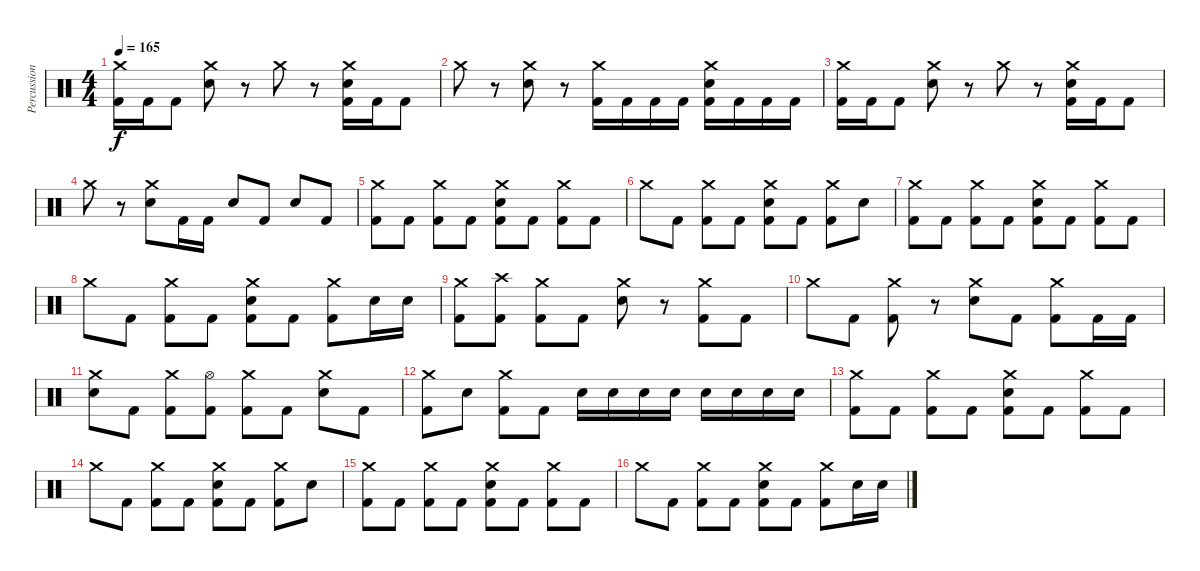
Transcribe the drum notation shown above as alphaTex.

\track ("Percussion" "Percussion") {instrument percussion}
\staff {score}
\articulation defaults
\ts (4 4)
\tempo 165
\clef neutral
\ks c
("Crash medium (hit)" "Kick (hit) 2").16{dy f} "Kick (hit) 2".16 "Kick (hit) 2".8 ("Crash medium (hit)" "Snare (hit) 2").8 r.8 "Crash medium (hit)".8 r.8 ("Crash medium (hit)" "Snare (hit) 2" "Kick (hit) 2").16 "Kick (hit) 2".16 "Kick (hit) 2".8 |
"Crash medium (hit)".8 r.8 ("Crash medium (hit)" "Snare (hit) 2").8 r.8 ("Crash medium (hit)" "Kick (hit) 2").16 "Kick (hit) 2".16 "Kick (hit) 2".16 "Kick (hit) 2".16 ("Crash medium (hit)" "Snare (hit) 2" "Kick (hit) 2").16 "Kick (hit) 2".16 "Kick (hit) 2".16 "Kick (hit) 2".16 |
("Crash medium (hit)" "Kick (hit) 2").16 "Kick (hit) 2".16 "Kick (hit) 2".8 ("Crash medium (hit)" "Snare (hit) 2").8 r.8 "Crash medium (hit)".8 r.8 ("Crash medium (hit)" "Snare (hit) 2" "Kick (hit) 2").16 "Kick (hit) 2".16 "Kick (hit) 2".8 |
"Crash medium (hit)".8 r.8 ("Crash medium (hit)" "Snare (hit) 2").8 "Kick (hit) 2".16 "Kick (hit) 2".16 "Snare (hit) 2".8 "Kick (hit) 2".8 "Snare (hit) 2".8 "Kick (hit) 2".8 |
("Crash medium (hit)" "Kick (hit) 2").8 "Kick (hit) 2".8 ("Crash medium (hit)" "Kick (hit) 2").8 "Kick (hit) 2".8 ("Crash medium (hit)" "Snare (hit) 2" "Kick (hit) 2").8 "Kick (hit) 2".8 ("Crash medium (hit)" "Kick (hit) 2").8 "Kick (hit) 2".8 |
"Crash medium (hit)".8 "Kick (hit) 2".8 ("Crash medium (hit)" "Kick (hit) 2").8 "Kick (hit) 2".8 ("Crash medium (hit)" "Snare (hit) 2" "Kick (hit) 2").8 "Kick (hit) 2".8 ("Crash medium (hit)" "Kick (hit) 2").8 "Snare (hit) 2".8 |
("Crash medium (hit)" "Kick (hit) 2").8 "Kick (hit) 2".8 ("Crash medium (hit)" "Kick (hit) 2").8 "Kick (hit) 2".8 ("Crash medium (hit)" "Snare (hit) 2" "Kick (hit) 2").8 "Kick (hit) 2".8 ("Crash medium (hit)" "Kick (hit) 2").8 "Kick (hit) 2".8 |
"Crash medium (hit)".8 "Kick (hit) 2".8 ("Crash medium (hit)" "Kick (hit) 2").8 "Kick (hit) 2".8 ("Crash medium (hit)" "Snare (hit) 2" "Kick (hit) 2").8 "Kick (hit) 2".8 ("Crash medium (hit)" "Kick (hit) 2").8 "Snare (hit) 2".16 "Snare (hit) 2".16 |
("Crash medium (hit)" "Kick (hit) 2").8 ("Crash high (hit)" "Kick (hit) 2").8 ("Crash medium (hit)" "Kick (hit) 2").8 "Kick (hit) 2".8 ("Crash medium (hit)" "Snare (hit) 2").8 r.8 ("Crash medium (hit)" "Kick (hit) 2").8 "Kick (hit) 2".8 |
"Crash medium (hit)".8 "Kick (hit) 2".8 ("Crash medium (hit)" "Kick (hit) 2").8 r.8 ("Crash medium (hit)" "Snare (hit) 2").8 "Kick (hit) 2".8 ("Crash medium (hit)" "Kick (hit) 2").8 "Kick (hit) 2".16 "Kick (hit) 2".16 |
("Crash medium (hit)" "Snare (hit) 2").8 "Kick (hit) 2".8 ("Crash medium (hit)" "Kick (hit) 2").8 ("Hi-Hat (open)" "Kick (hit) 2").8 ("Crash medium (hit)" "Kick (hit) 2").8 "Kick (hit) 2".8 ("Crash medium (hit)" "Snare (hit) 2").8 "Kick (hit) 2".8 |
("Crash medium (hit)" "Kick (hit) 2").8 "Snare (hit) 2".8 ("Crash medium (hit)" "Kick (hit) 2").8 "Kick (hit) 2".8 "Snare (hit) 2".16 "Snare (hit) 2".16 "Snare (hit) 2".16 "Snare (hit) 2".16 "Snare (hit) 2".16 "Snare (hit) 2".16 "Snare (hit) 2".16 "Snare (hit) 2".16 |
("Crash medium (hit)" "Kick (hit) 2").8 "Kick (hit) 2".8 ("Crash medium (hit)" "Kick (hit) 2").8 "Kick (hit) 2".8 ("Crash medium (hit)" "Snare (hit) 2" "Kick (hit) 2").8 "Kick (hit) 2".8 ("Crash medium (hit)" "Kick (hit) 2").8 "Kick (hit) 2".8 |
"Crash medium (hit)".8 "Kick (hit) 2".8 ("Crash medium (hit)" "Kick (hit) 2").8 "Kick (hit) 2".8 ("Crash medium (hit)" "Snare (hit) 2" "Kick (hit) 2").8 "Kick (hit) 2".8 ("Crash medium (hit)" "Kick (hit) 2").8 "Snare (hit) 2".8 |
("Crash medium (hit)" "Kick (hit) 2").8 "Kick (hit) 2".8 ("Crash medium (hit)" "Kick (hit) 2").8 "Kick (hit) 2".8 ("Crash medium (hit)" "Snare (hit) 2" "Kick (hit) 2").8 "Kick (hit) 2".8 ("Crash medium (hit)" "Kick (hit) 2").8 "Kick (hit) 2".8 |
"Crash medium (hit)".8 "Kick (hit) 2".8 ("Crash medium (hit)" "Kick (hit) 2").8 "Kick (hit) 2".8 ("Crash medium (hit)" "Snare (hit) 2" "Kick (hit) 2").8 "Kick (hit) 2".8 ("Crash medium (hit)" "Kick (hit) 2").8 "Snare (hit) 2".16 "Snare (hit) 2".16
